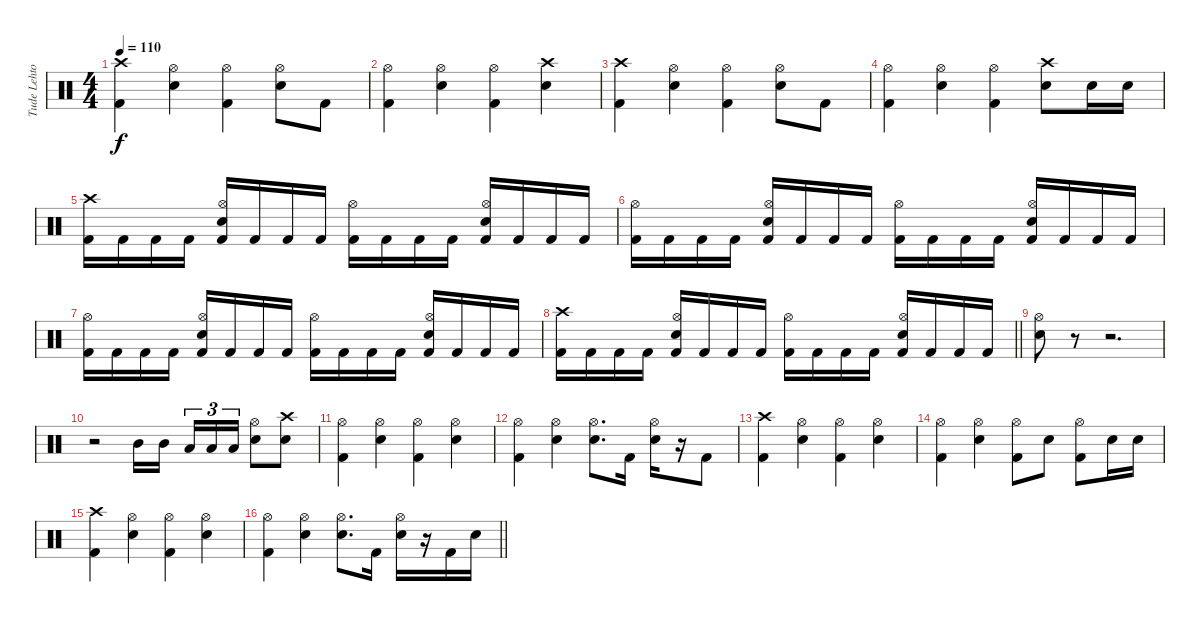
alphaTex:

\track ("Tude Lehtonen" "Tude Lehto") {instrument percussion}
\staff {score}
\articulation defaults
\ts (4 4)
\tempo 110
\clef neutral
\ks c
("Crash high (hit)" "Kick (hit) 2").4{dy f} ("Hi-Hat (open)" "Snare (hit) 2").4 ("Hi-Hat (open)" "Kick (hit) 2").4 ("Hi-Hat (open)" "Snare (hit) 2").8 "Kick (hit) 2".8 |
("Hi-Hat (open)" "Kick (hit) 2").4 ("Hi-Hat (open)" "Snare (hit) 2").4 ("Hi-Hat (open)" "Kick (hit) 2").4 ("Crash high (hit)" "Snare (hit) 2").4 |
("Crash high (hit)" "Kick (hit) 2").4 ("Hi-Hat (open)" "Snare (hit) 2").4 ("Hi-Hat (open)" "Kick (hit) 2").4 ("Hi-Hat (open)" "Snare (hit) 2").8 "Kick (hit) 2".8 |
("Hi-Hat (open)" "Kick (hit) 2").4 ("Hi-Hat (open)" "Snare (hit) 2").4 ("Hi-Hat (open)" "Kick (hit) 2").4 ("Crash high (hit)" "Snare (hit) 2").8 "Snare (hit) 2".16 "Snare (hit) 2".16 |
("Crash high (hit)" "Kick (hit) 2").16 "Kick (hit) 2".16 "Kick (hit) 2".16 "Kick (hit) 2".16 ("Hi-Hat (open)" "Snare (hit) 2" "Kick (hit) 2").16 "Kick (hit) 2".16 "Kick (hit) 2".16 "Kick (hit) 2".16 ("Hi-Hat (open)" "Kick (hit) 2").16 "Kick (hit) 2".16 "Kick (hit) 2".16 "Kick (hit) 2".16 ("Hi-Hat (open)" "Snare (hit) 2" "Kick (hit) 2").16 "Kick (hit) 2".16 "Kick (hit) 2".16 "Kick (hit) 2".16 |
("Hi-Hat (open)" "Kick (hit) 2").16 "Kick (hit) 2".16 "Kick (hit) 2".16 "Kick (hit) 2".16 ("Hi-Hat (open)" "Snare (hit) 2" "Kick (hit) 2").16 "Kick (hit) 2".16 "Kick (hit) 2".16 "Kick (hit) 2".16 ("Hi-Hat (open)" "Kick (hit) 2").16 "Kick (hit) 2".16 "Kick (hit) 2".16 "Kick (hit) 2".16 ("Hi-Hat (open)" "Snare (hit) 2" "Kick (hit) 2").16 "Kick (hit) 2".16 "Kick (hit) 2".16 "Kick (hit) 2".16 |
("Hi-Hat (open)" "Kick (hit) 2").16 "Kick (hit) 2".16 "Kick (hit) 2".16 "Kick (hit) 2".16 ("Hi-Hat (open)" "Snare (hit) 2" "Kick (hit) 2").16 "Kick (hit) 2".16 "Kick (hit) 2".16 "Kick (hit) 2".16 ("Hi-Hat (open)" "Kick (hit) 2").16 "Kick (hit) 2".16 "Kick (hit) 2".16 "Kick (hit) 2".16 ("Hi-Hat (open)" "Snare (hit) 2" "Kick (hit) 2").16 "Kick (hit) 2".16 "Kick (hit) 2".16 "Kick (hit) 2".16 |
\barLineRight lightlight
("Crash high (hit)" "Kick (hit) 2").16 "Kick (hit) 2".16 "Kick (hit) 2".16 "Kick (hit) 2".16 ("Hi-Hat (open)" "Snare (hit) 2" "Kick (hit) 2").16 "Kick (hit) 2".16 "Kick (hit) 2".16 "Kick (hit) 2".16 ("Hi-Hat (open)" "Kick (hit) 2").16 "Kick (hit) 2".16 "Kick (hit) 2".16 "Kick (hit) 2".16 ("Hi-Hat (open)" "Snare (hit) 2" "Kick (hit) 2").16 "Kick (hit) 2".16 "Kick (hit) 2".16 "Kick (hit) 2".16 |
\section ("" "")
("Hi-Hat (open)" "Snare (hit) 2").8 r.8 r.2{d} |
r.2 "Mid Tom (hit)".16 "Mid Tom (hit)".16{beam splitsecondary} "Low Tom (hit)".16{tu (3 2)} "Low Tom (hit)".16{tu (3 2)} "Low Tom (hit)".16{tu (3 2)} ("Hi-Hat (open)" "Snare (hit) 2").8 ("Crash high (hit)" "Snare (hit) 2").8 |
("Hi-Hat (open)" "Kick (hit) 2").4 ("Hi-Hat (open)" "Snare (hit) 2").4 ("Hi-Hat (open)" "Kick (hit) 2").4 ("Hi-Hat (open)" "Snare (hit) 2").4 |
("Hi-Hat (open)" "Kick (hit) 2").4 ("Hi-Hat (open)" "Snare (hit) 2").4 ("Hi-Hat (open)" "Snare (hit) 2").8{d} "Kick (hit) 2".16 ("Hi-Hat (open)" "Snare (hit) 2").16 r.16 "Kick (hit) 2".8 |
("Crash high (hit)" "Kick (hit) 2").4 ("Hi-Hat (open)" "Snare (hit) 2").4 ("Hi-Hat (open)" "Kick (hit) 2").4 ("Hi-Hat (open)" "Snare (hit) 2").4 |
("Hi-Hat (open)" "Kick (hit) 2").4 ("Hi-Hat (open)" "Snare (hit) 2").4 ("Hi-Hat (open)" "Kick (hit) 2").8 "Snare (hit) 2".8 ("Hi-Hat (open)" "Kick (hit) 2").8 "Snare (hit) 2".16 "Snare (hit) 2".16 |
("Crash high (hit)" "Kick (hit) 2").4 ("Hi-Hat (open)" "Snare (hit) 2").4 ("Hi-Hat (open)" "Kick (hit) 2").4 ("Hi-Hat (open)" "Snare (hit) 2").4 |
\barLineRight lightlight
("Hi-Hat (open)" "Kick (hit) 2").4 ("Hi-Hat (open)" "Snare (hit) 2").4 ("Hi-Hat (open)" "Snare (hit) 2").8{d} "Kick (hit) 2".16 ("Hi-Hat (open)" "Snare (hit) 2").16 r.16 "Kick (hit) 2".16 "Snare (hit) 2".16
